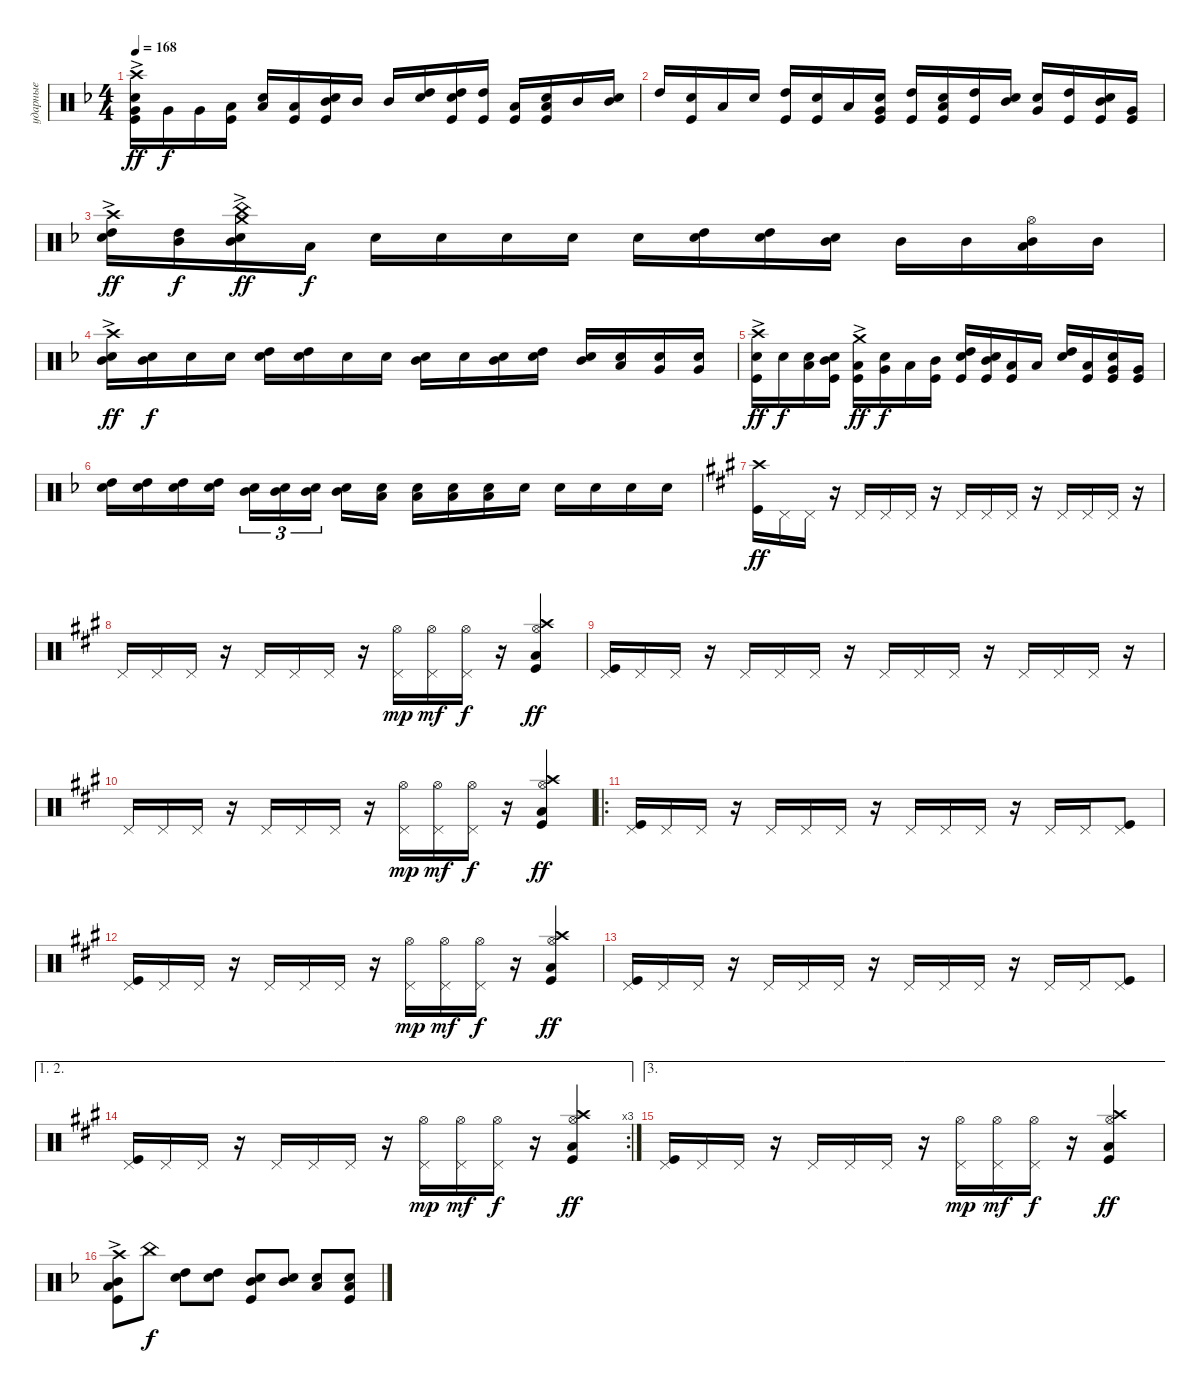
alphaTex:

\track ("ударные" "ударные") {instrument percussion}
\staff {score}
\articulation defaults
\ts (4 4)
\tempo 168
\clef neutral
\ks dminor
("Kick (hit)" "Snare (hit) 2" "Very Low Tom (hit)" "Crash high (hit)"{ac}).16{dy ff} "Very Low Tom (hit)".16{dy f} "Very Low Tom (hit)".16 ("Kick (hit)" "Low Tom (hit)").16 ("Low Tom (hit)" "Snare (hit) 2").16 ("Kick (hit)" "Low Tom (hit)").16 ("Mid Tom (hit)" "Snare (hit) 2" "Kick (hit)").16 "Mid Tom (hit)".16 "Mid Tom (hit)".16 ("High Tom (hit)" "Snare (hit) 2").16 ("High Tom (hit)" "Snare (hit) 2" "Kick (hit)").16 ("High Tom (hit)" "Kick (hit)").16 ("Low Tom (hit)" "Kick (hit)").16 ("Low Tom (hit)" "Snare (hit) 2" "Kick (hit)").16 "Mid Tom (hit)".16 ("Mid Tom (hit)" "Snare (hit) 2").16 |
"High Tom (hit)".16 ("Snare (hit) 2" "Kick (hit)").16 "Low Tom (hit)".16 "Snare (hit) 2".16 ("High Tom (hit)" "Kick (hit)").16 ("Kick (hit)" "Snare (hit) 2").16 "Low Tom (hit)".16 ("Snare (hit) 2" "Very Low Tom (hit)" "Kick (hit)").16 ("High Tom (hit)" "Kick (hit)").16 ("Snare (hit) 2" "Low Tom (hit)" "Kick (hit)").16 ("Kick (hit)" "High Tom (hit)").16 ("Snare (hit) 2" "Mid Tom (hit)").16 ("Snare (hit) 2" "Very Low Tom (hit)").16 ("High Tom (hit)" "Kick (hit)").16 ("Snare (hit) 2" "Mid Tom (hit)" "Kick (hit)").16 ("Very Low Tom (hit)" "Kick (hit)").16 |
("Crash high (hit)"{ac} "High Tom (hit)" "Snare (hit) 2").16{dy ff} ("High Tom (hit)" "Mid Tom (hit)").16{dy f} ("Mid Tom (hit)" "Snare (hit) 2" "China (hit)"{ac} "Crash medium (hit)").16{dy ff} "Low Tom (hit)".16{dy f} "Snare (hit) 2".16 "Snare (hit) 2".16 "Electric Snare (hit)".16 "Electric Snare (hit)".16 "Snare (hit) 2".16 ("High Tom (hit)" "Electric Snare (hit)").16 ("High Tom (hit)" "Snare (hit) 2").16 ("Mid Tom (hit)" "Snare (hit) 2").16 "Mid Tom (hit)".16 "Mid Tom (hit)".16 ("Mid Tom (hit)" "Low Tom (hit)" "Hi-Hat (open)").16 "Mid Tom (hit)".16 |
("Mid Tom (hit)" "Snare (hit) 2" "Crash high (hit)"{ac}).16{dy ff} ("Mid Tom (hit)" "Snare (hit) 2").16{dy f} "Snare (hit) 2".16 "Electric Snare (hit)".16 ("Electric Snare (hit)" "High Tom (hit)").16 ("High Tom (hit)" "Snare (hit) 2").16 "Electric Snare (hit)".16 "Snare (hit) 2".16 ("Mid Tom (hit)" "Snare (hit) 2").16 "Electric Snare (hit)".16 ("Mid Tom (hit)" "Snare (hit) 2").16 ("High Tom (hit)" "Snare (hit) 2").16 ("Mid Tom (hit)" "Electric Snare (hit)").16 ("Low Tom (hit)" "Snare (hit) 2").16 ("Very Low Tom (hit)" "Snare (hit) 2").16 ("Very Low Tom (hit)" "Snare (hit) 2").16 |
("Crash high (hit)"{ac} "Snare (hit) 2" "Kick (hit)").16{dy ff} "Snare (hit) 2".16{dy f} ("Low Tom (hit)" "Snare (hit) 2").16 ("Mid Tom (hit)" "Snare (hit) 2" "Kick (hit)").16 ("Crash medium (hit)"{ac} "Low Tom (hit)" "Kick (hit)").16{dy ff} ("Very Low Tom (hit)" "Snare (hit) 2").16{dy f} "Low Tom (hit)".16 ("Mid Tom (hit)" "Kick (hit)").16 ("High Tom (hit)" "Snare (hit) 2" "Kick (hit)").16 ("Mid Tom (hit)" "Snare (hit) 2" "Kick (hit)").16 ("Low Tom (hit)" "Kick (hit)").16 "Low Tom (hit)".16 ("High Tom (hit)" "Snare (hit) 2").16 ("Low Tom (hit)" "Kick (hit)").16 ("Very Low Tom (hit)" "Snare (hit) 2" "Kick (hit)").16 ("Very Low Tom (hit)" "Kick (hit)").16 |
("High Tom (hit)" "Snare (hit) 2").16 ("High Tom (hit)" "Snare (hit) 2").16 ("High Tom (hit)" "Snare (hit) 2").16 ("High Tom (hit)" "Snare (hit) 2").16 ("Mid Tom (hit)" "Snare (hit) 2").16{tu (3 2)} ("Mid Tom (hit)" "Snare (hit) 2").16{tu (3 2)} ("Mid Tom (hit)" "Snare (hit) 2").16{tu (3 2) beam splitsecondary} ("Mid Tom (hit)" "Snare (hit) 2").16 ("Low Tom (hit)" "Snare (hit) 2").16 ("Low Tom (hit)" "Snare (hit) 2").16 ("Low Tom (hit)" "Snare (hit) 2").16 ("Low Tom (hit)" "Snare (hit) 2").16 "Snare (hit) 2".16 "Snare (hit) 2".16 "Snare (hit) 2".16 "Snare (hit) 2".16 "Snare (hit) 2".16 |
\ks f#minor
("Kick (hit)" "Crash high (hit)").16{dy ff} "Pedal Hi-Hat (hit)".16 "Pedal Hi-Hat (hit)".16 r.16 "Pedal Hi-Hat (hit)".16 "Pedal Hi-Hat (hit)".16 "Pedal Hi-Hat (hit)".16 r.16 "Pedal Hi-Hat (hit)".16 "Pedal Hi-Hat (hit)".16 "Pedal Hi-Hat (hit)".16 r.16 "Pedal Hi-Hat (hit)".16 "Pedal Hi-Hat (hit)".16 "Pedal Hi-Hat (hit)".16 r.16 |
"Pedal Hi-Hat (hit)".16 "Pedal Hi-Hat (hit)".16 "Pedal Hi-Hat (hit)".16 r.16 "Pedal Hi-Hat (hit)".16 "Pedal Hi-Hat (hit)".16 "Pedal Hi-Hat (hit)".16 r.16 ("Pedal Hi-Hat (hit)" "Hi-Hat (open)").16{dy mp} ("Pedal Hi-Hat (hit)" "Hi-Hat (open)").16{dy mf} ("Pedal Hi-Hat (hit)" "Hi-Hat (open)").16{dy f} r.16 ("Hi-Hat (open)" "Kick (hit)" "Crash high (hit)" "Low Floor Tom (hit)").4{dy ff} |
("Pedal Hi-Hat (hit)" "Kick (hit)").16 "Pedal Hi-Hat (hit)".16 "Pedal Hi-Hat (hit)".16 r.16 "Pedal Hi-Hat (hit)".16 "Pedal Hi-Hat (hit)".16 "Pedal Hi-Hat (hit)".16 r.16 "Pedal Hi-Hat (hit)".16 "Pedal Hi-Hat (hit)".16 "Pedal Hi-Hat (hit)".16 r.16 "Pedal Hi-Hat (hit)".16 "Pedal Hi-Hat (hit)".16 "Pedal Hi-Hat (hit)".16 r.16 |
"Pedal Hi-Hat (hit)".16 "Pedal Hi-Hat (hit)".16 "Pedal Hi-Hat (hit)".16 r.16 "Pedal Hi-Hat (hit)".16 "Pedal Hi-Hat (hit)".16 "Pedal Hi-Hat (hit)".16 r.16 ("Pedal Hi-Hat (hit)" "Hi-Hat (open)").16{dy mp} ("Pedal Hi-Hat (hit)" "Hi-Hat (open)").16{dy mf} ("Pedal Hi-Hat (hit)" "Hi-Hat (open)").16{dy f} r.16 ("Hi-Hat (open)" "Kick (hit)" "Crash high (hit)" "Low Floor Tom (hit)").4{dy ff} |
\ro
("Pedal Hi-Hat (hit)" "Kick (hit)").16 "Pedal Hi-Hat (hit)".16 "Pedal Hi-Hat (hit)".16 r.16 "Pedal Hi-Hat (hit)".16 "Pedal Hi-Hat (hit)".16 "Pedal Hi-Hat (hit)".16 r.16 "Pedal Hi-Hat (hit)".16 "Pedal Hi-Hat (hit)".16 "Pedal Hi-Hat (hit)".16 r.16 "Pedal Hi-Hat (hit)".16 "Pedal Hi-Hat (hit)".16 ("Pedal Hi-Hat (hit)" "Kick (hit)").8 |
("Pedal Hi-Hat (hit)" "Kick (hit)").16 "Pedal Hi-Hat (hit)".16 "Pedal Hi-Hat (hit)".16 r.16 "Pedal Hi-Hat (hit)".16 "Pedal Hi-Hat (hit)".16 "Pedal Hi-Hat (hit)".16 r.16 ("Pedal Hi-Hat (hit)" "Hi-Hat (open)").16{dy mp} ("Pedal Hi-Hat (hit)" "Hi-Hat (open)").16{dy mf} ("Pedal Hi-Hat (hit)" "Hi-Hat (open)").16{dy f} r.16 ("Hi-Hat (open)" "Kick (hit)" "Crash high (hit)" "Low Floor Tom (hit)").4{dy ff} |
("Pedal Hi-Hat (hit)" "Kick (hit)").16 "Pedal Hi-Hat (hit)".16 "Pedal Hi-Hat (hit)".16 r.16 "Pedal Hi-Hat (hit)".16 "Pedal Hi-Hat (hit)".16 "Pedal Hi-Hat (hit)".16 r.16 "Pedal Hi-Hat (hit)".16 "Pedal Hi-Hat (hit)".16 "Pedal Hi-Hat (hit)".16 r.16 "Pedal Hi-Hat (hit)".16 "Pedal Hi-Hat (hit)".16 ("Pedal Hi-Hat (hit)" "Kick (hit)").8 |
\ae (1 2)
\rc 3
("Pedal Hi-Hat (hit)" "Kick (hit)").16 "Pedal Hi-Hat (hit)".16 "Pedal Hi-Hat (hit)".16 r.16 "Pedal Hi-Hat (hit)".16 "Pedal Hi-Hat (hit)".16 "Pedal Hi-Hat (hit)".16 r.16 ("Pedal Hi-Hat (hit)" "Hi-Hat (open)").16{dy mp} ("Pedal Hi-Hat (hit)" "Hi-Hat (open)").16{dy mf} ("Pedal Hi-Hat (hit)" "Hi-Hat (open)").16{dy f} r.16 ("Hi-Hat (open)" "Kick (hit)" "Crash high (hit)" "Low Floor Tom (hit)").4{dy ff} |
\ae 3
("Pedal Hi-Hat (hit)" "Kick (hit)").16 "Pedal Hi-Hat (hit)".16 "Pedal Hi-Hat (hit)".16 r.16 "Pedal Hi-Hat (hit)".16 "Pedal Hi-Hat (hit)".16 "Pedal Hi-Hat (hit)".16 r.16 ("Pedal Hi-Hat (hit)" "Hi-Hat (open)").16{dy mp} ("Pedal Hi-Hat (hit)" "Hi-Hat (open)").16{dy mf} ("Pedal Hi-Hat (hit)" "Hi-Hat (open)").16{dy f} r.16 ("Hi-Hat (open)" "Kick (hit)" "Crash high (hit)" "Low Floor Tom (hit)").4{dy ff} |
\ks dminor
("Crash high (hit)"{ac} "Low Tom (hit)" "Mid Tom (hit)" "Kick (hit)").8 "China (hit)".8{dy f} ("High Tom (hit)" "Snare (hit) 2").8 ("High Tom (hit)" "Snare (hit) 2").8 ("Mid Tom (hit)" "Snare (hit) 2" "Kick (hit)").8 ("Mid Tom (hit)" "Snare (hit) 2").8 ("Low Tom (hit)" "Snare (hit) 2").8 ("Low Tom (hit)" "Snare (hit) 2" "Kick (hit)").8
